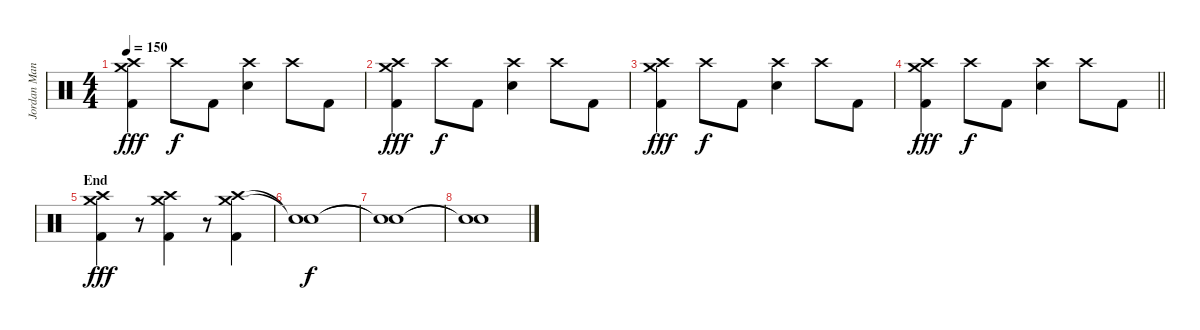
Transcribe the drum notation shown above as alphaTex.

\track ("Jordan Mancino" "Jordan Man") {instrument percussion}
\staff {score}
\articulation defaults
\ts (4 4)
\tempo 150
\clef neutral
\ks c
("Crash high (hit)" "Crash medium (hit)" "Kick (hit) 2").4{dy fff} "Crash high (hit)".8{dy f} "Kick (hit) 2".8 ("Crash high (hit)" "Electric Snare (hit)").4 "Crash high (hit)".8 "Kick (hit) 2".8 |
("Crash high (hit)" "Crash medium (hit)" "Kick (hit) 2").4{dy fff} "Crash high (hit)".8{dy f} "Kick (hit) 2".8 ("Crash high (hit)" "Electric Snare (hit)").4 "Crash high (hit)".8 "Kick (hit) 2".8 |
("Crash high (hit)" "Crash medium (hit)" "Kick (hit) 2").4{dy fff} "Crash high (hit)".8{dy f} "Kick (hit) 2".8 ("Crash high (hit)" "Electric Snare (hit)").4 "Crash high (hit)".8 "Kick (hit) 2".8 |
\barLineRight lightlight
("Crash high (hit)" "Crash medium (hit)" "Kick (hit) 2").4{dy fff} "Crash high (hit)".8{dy f} "Kick (hit) 2".8 ("Crash high (hit)" "Electric Snare (hit)").4 "Crash high (hit)".8 "Kick (hit) 2".8 |
\section ("" "End")
("Crash high (hit)" "Crash medium (hit)" "Kick (hit) 2").4{dy fff} r.8{volume 0} ("Crash high (hit)" "Crash medium (hit)" "Kick (hit) 2").4{volume 16} r.8{volume 0} ("Crash high (hit)" "Crash medium (hit)" "Kick (hit) 2").4{volume 16} |
("Snare (hit)"{t} "Snare (hit)"{t}).1{dy f} |
("Snare (hit)"{t} "Snare (hit)"{t}).1 |
("Snare (hit)"{t} "Snare (hit)"{t}).1
